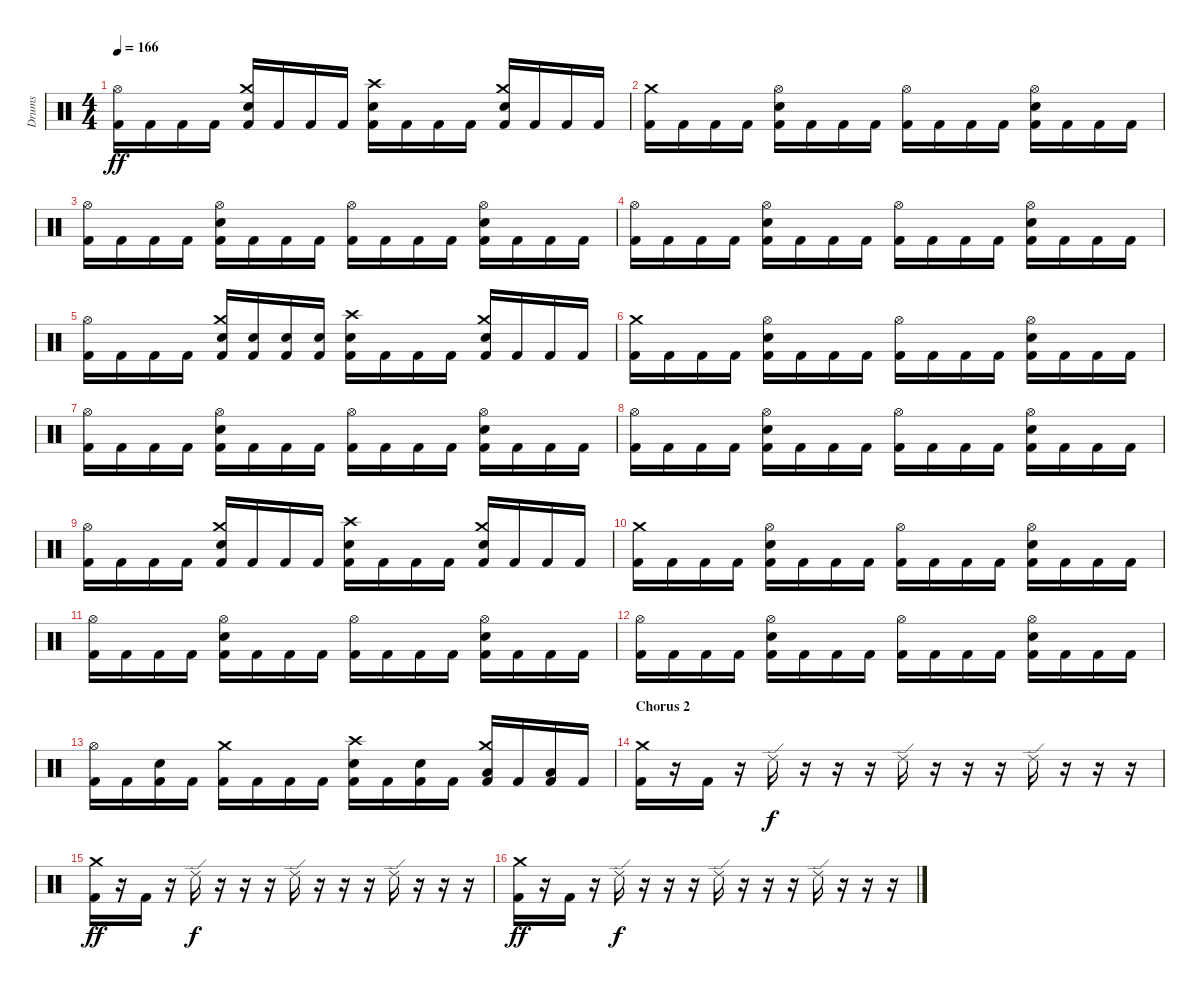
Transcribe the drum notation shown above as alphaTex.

\track ("Drums" "Drums") {instrument percussion}
\staff {score}
\articulation defaults
\ts (4 4)
\tempo 166
\clef neutral
\ks c
("Hi-Hat (open)" "Kick (hit) 2").16{dy ff} "Kick (hit) 2".16 "Kick (hit) 2".16 "Kick (hit) 2".16 ("Crash medium (hit)" "Electric Snare (hit)" "Kick (hit) 2").16 "Kick (hit) 2".16 "Kick (hit) 2".16 "Kick (hit) 2".16 ("Crash high (hit)" "Electric Snare (hit)" "Kick (hit) 2").16 "Kick (hit) 2".16 "Kick (hit) 2".16 "Kick (hit) 2".16 ("Crash medium (hit)" "Electric Snare (hit)" "Kick (hit) 2").16 "Kick (hit) 2".16 "Kick (hit) 2".16 "Kick (hit) 2".16 |
("Crash medium (hit)" "Kick (hit) 2").16 "Kick (hit) 2".16 "Kick (hit) 2".16 "Kick (hit) 2".16 ("Hi-Hat (open)" "Electric Snare (hit)" "Kick (hit) 2").16 "Kick (hit) 2".16 "Kick (hit) 2".16 "Kick (hit) 2".16 ("Hi-Hat (open)" "Kick (hit) 2").16 "Kick (hit) 2".16 "Kick (hit) 2".16 "Kick (hit) 2".16 ("Hi-Hat (open)" "Electric Snare (hit)" "Kick (hit) 2").16 "Kick (hit) 2".16 "Kick (hit) 2".16 "Kick (hit) 2".16 |
("Hi-Hat (open)" "Kick (hit) 2").16 "Kick (hit) 2".16 "Kick (hit) 2".16 "Kick (hit) 2".16 ("Hi-Hat (open)" "Electric Snare (hit)" "Kick (hit) 2").16 "Kick (hit) 2".16 "Kick (hit) 2".16 "Kick (hit) 2".16 ("Hi-Hat (open)" "Kick (hit) 2").16 "Kick (hit) 2".16 "Kick (hit) 2".16 "Kick (hit) 2".16 ("Hi-Hat (open)" "Electric Snare (hit)" "Kick (hit) 2").16 "Kick (hit) 2".16 "Kick (hit) 2".16 "Kick (hit) 2".16 |
("Hi-Hat (open)" "Kick (hit) 2").16 "Kick (hit) 2".16 "Kick (hit) 2".16 "Kick (hit) 2".16 ("Hi-Hat (open)" "Electric Snare (hit)" "Kick (hit) 2").16 "Kick (hit) 2".16 "Kick (hit) 2".16 "Kick (hit) 2".16 ("Hi-Hat (open)" "Kick (hit) 2").16 "Kick (hit) 2".16 "Kick (hit) 2".16 "Kick (hit) 2".16 ("Hi-Hat (open)" "Electric Snare (hit)" "Kick (hit) 2").16 "Kick (hit) 2".16 "Kick (hit) 2".16 "Kick (hit) 2".16 |
("Hi-Hat (open)" "Kick (hit) 2").16 "Kick (hit) 2".16 "Kick (hit) 2".16 "Kick (hit) 2".16 ("Crash medium (hit)" "Electric Snare (hit)" "Kick (hit) 2").16 ("Electric Snare (hit)" "Kick (hit) 2").16 ("Electric Snare (hit)" "Kick (hit) 2").16 ("Electric Snare (hit)" "Kick (hit) 2").16 ("Crash high (hit)" "Electric Snare (hit)" "Kick (hit) 2").16 "Kick (hit) 2".16 "Kick (hit) 2".16 "Kick (hit) 2".16 ("Crash medium (hit)" "Electric Snare (hit)" "Kick (hit) 2").16 "Kick (hit) 2".16 "Kick (hit) 2".16 "Kick (hit) 2".16 |
("Crash medium (hit)" "Kick (hit) 2").16 "Kick (hit) 2".16 "Kick (hit) 2".16 "Kick (hit) 2".16 ("Hi-Hat (open)" "Electric Snare (hit)" "Kick (hit) 2").16 "Kick (hit) 2".16 "Kick (hit) 2".16 "Kick (hit) 2".16 ("Hi-Hat (open)" "Kick (hit) 2").16 "Kick (hit) 2".16 "Kick (hit) 2".16 "Kick (hit) 2".16 ("Hi-Hat (open)" "Electric Snare (hit)" "Kick (hit) 2").16 "Kick (hit) 2".16 "Kick (hit) 2".16 "Kick (hit) 2".16 |
("Hi-Hat (open)" "Kick (hit) 2").16 "Kick (hit) 2".16 "Kick (hit) 2".16 "Kick (hit) 2".16 ("Hi-Hat (open)" "Electric Snare (hit)" "Kick (hit) 2").16 "Kick (hit) 2".16 "Kick (hit) 2".16 "Kick (hit) 2".16 ("Hi-Hat (open)" "Kick (hit) 2").16 "Kick (hit) 2".16 "Kick (hit) 2".16 "Kick (hit) 2".16 ("Hi-Hat (open)" "Electric Snare (hit)" "Kick (hit) 2").16 "Kick (hit) 2".16 "Kick (hit) 2".16 "Kick (hit) 2".16 |
("Hi-Hat (open)" "Kick (hit) 2").16 "Kick (hit) 2".16 "Kick (hit) 2".16 "Kick (hit) 2".16 ("Hi-Hat (open)" "Electric Snare (hit)" "Kick (hit) 2").16 "Kick (hit) 2".16 "Kick (hit) 2".16 "Kick (hit) 2".16 ("Hi-Hat (open)" "Kick (hit) 2").16 "Kick (hit) 2".16 "Kick (hit) 2".16 "Kick (hit) 2".16 ("Hi-Hat (open)" "Electric Snare (hit)" "Kick (hit) 2").16 "Kick (hit) 2".16 "Kick (hit) 2".16 "Kick (hit) 2".16 |
("Hi-Hat (open)" "Kick (hit) 2").16 "Kick (hit) 2".16 "Kick (hit) 2".16 "Kick (hit) 2".16 ("Crash medium (hit)" "Electric Snare (hit)" "Kick (hit) 2").16 "Kick (hit) 2".16 "Kick (hit) 2".16 "Kick (hit) 2".16 ("Crash high (hit)" "Electric Snare (hit)" "Kick (hit) 2").16 "Kick (hit) 2".16 "Kick (hit) 2".16 "Kick (hit) 2".16 ("Crash medium (hit)" "Electric Snare (hit)" "Kick (hit) 2").16 "Kick (hit) 2".16 "Kick (hit) 2".16 "Kick (hit) 2".16 |
("Crash medium (hit)" "Kick (hit) 2").16 "Kick (hit) 2".16 "Kick (hit) 2".16 "Kick (hit) 2".16 ("Hi-Hat (open)" "Electric Snare (hit)" "Kick (hit) 2").16 "Kick (hit) 2".16 "Kick (hit) 2".16 "Kick (hit) 2".16 ("Hi-Hat (open)" "Kick (hit) 2").16 "Kick (hit) 2".16 "Kick (hit) 2".16 "Kick (hit) 2".16 ("Hi-Hat (open)" "Electric Snare (hit)" "Kick (hit) 2").16 "Kick (hit) 2".16 "Kick (hit) 2".16 "Kick (hit) 2".16 |
("Hi-Hat (open)" "Kick (hit) 2").16 "Kick (hit) 2".16 "Kick (hit) 2".16 "Kick (hit) 2".16 ("Hi-Hat (open)" "Electric Snare (hit)" "Kick (hit) 2").16 "Kick (hit) 2".16 "Kick (hit) 2".16 "Kick (hit) 2".16 ("Hi-Hat (open)" "Kick (hit) 2").16 "Kick (hit) 2".16 "Kick (hit) 2".16 "Kick (hit) 2".16 ("Hi-Hat (open)" "Electric Snare (hit)" "Kick (hit) 2").16 "Kick (hit) 2".16 "Kick (hit) 2".16 "Kick (hit) 2".16 |
("Hi-Hat (open)" "Kick (hit) 2").16 "Kick (hit) 2".16 "Kick (hit) 2".16 "Kick (hit) 2".16 ("Hi-Hat (open)" "Electric Snare (hit)" "Kick (hit) 2").16 "Kick (hit) 2".16 "Kick (hit) 2".16 "Kick (hit) 2".16 ("Hi-Hat (open)" "Kick (hit) 2").16 "Kick (hit) 2".16 "Kick (hit) 2".16 "Kick (hit) 2".16 ("Hi-Hat (open)" "Electric Snare (hit)" "Kick (hit) 2").16 "Kick (hit) 2".16 "Kick (hit) 2".16 "Kick (hit) 2".16 |
("Hi-Hat (open)" "Kick (hit) 2").16 "Kick (hit) 2".16 ("Electric Snare (hit)" "Kick (hit) 2").16 "Kick (hit) 2".16 ("Crash medium (hit)" "Kick (hit) 2").16 "Kick (hit) 2".16 "Kick (hit) 2".16 "Kick (hit) 2".16 ("Crash high (hit)" "Electric Snare (hit)" "Kick (hit) 2").16 "Kick (hit) 2".16 ("Electric Snare (hit)" "Kick (hit) 2").16 "Kick (hit) 2".16 ("Crash medium (hit)" "Low Floor Tom (hit)" "Kick (hit) 2").16 "Kick (hit) 2".16 ("Low Floor Tom (hit)" "Kick (hit) 2").16 "Kick (hit) 2".16 |
\section ("" "Chorus 2")
("Crash medium (hit)" "Kick (hit) 2").16 r.16 "Kick (hit) 2".16 r.16 "Ride (edge) 2".16{dy f} r.16 r.16 r.16 "Ride (edge) 2".16 r.16 r.16 r.16 "Ride (edge) 2".16 r.16 r.16 r.16 |
("Crash medium (hit)" "Kick (hit) 2").16{dy ff} r.16 "Kick (hit) 2".16 r.16 "Ride (edge) 2".16{dy f} r.16 r.16 r.16 "Ride (edge) 2".16 r.16 r.16 r.16 "Ride (edge) 2".16 r.16 r.16 r.16 |
("Crash medium (hit)" "Kick (hit) 2").16{dy ff} r.16 "Kick (hit) 2".16 r.16 "Ride (edge) 2".16{dy f} r.16 r.16 r.16 "Ride (edge) 2".16 r.16 r.16 r.16 "Ride (edge) 2".16 r.16 r.16 r.16
